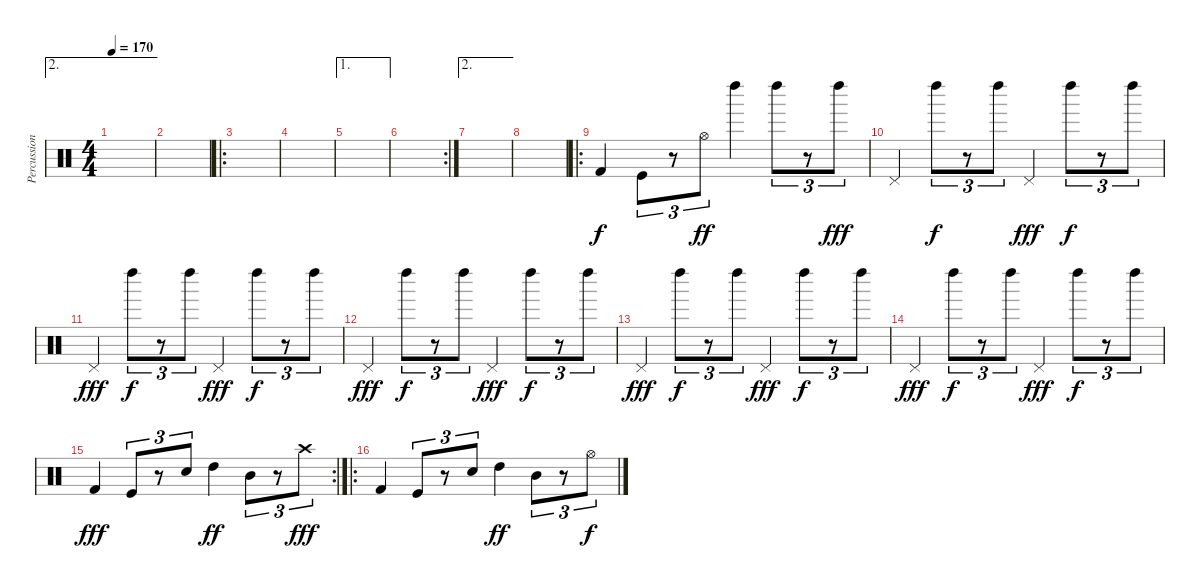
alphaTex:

\track ("Percussions" "Percussion") {instrument percussion}
\staff {score}
\articulation defaults
\ae 2
\ts (4 4)
\tempo 170
\clef neutral
\ks c
|
|
\ro
|
|
\ae 1
|
\rc 2
|
\ae 2
|
|
\ro "Kick (hit) 2".4 "Kick (hit)".8{tu (3 2)}
r.8{tu (3 2)} "Hi-Hat (open)".8{tu (3 2) dy ff} "Left Maraca (hit)".4 "Left Maraca (hit)".8{tu (3 2)} r.8{tu (3 2)} "Left Maraca (hit)".8{tu (3 2) dy fff} |
"Pedal Hi-Hat (hit)".4 "Left Maraca (hit)".8{tu (3 2) dy f} r.8{tu (3 2)} "Left Maraca (hit)".8{tu (3 2)} "Pedal Hi-Hat (hit)".4{dy fff} "Left Maraca (hit)".8{tu (3 2) dy f} r.8{tu (3 2)} "Left Maraca (hit)".8{tu (3 2)} |
"Pedal Hi-Hat (hit)".4{dy fff} "Left Maraca (hit)".8{tu (3 2) dy f} r.8{tu (3 2)} "Left Maraca (hit)".8{tu (3 2)} "Pedal Hi-Hat (hit)".4{dy fff} "Left Maraca (hit)".8{tu (3 2) dy f} r.8{tu (3 2)} "Left Maraca (hit)".8{tu (3 2)} |
"Pedal Hi-Hat (hit)".4{dy fff} "Left Maraca (hit)".8{tu (3 2) dy f} r.8{tu (3 2)} "Left Maraca (hit)".8{tu (3 2)} "Pedal Hi-Hat (hit)".4{dy fff} "Left Maraca (hit)".8{tu (3 2) dy f} r.8{tu (3 2)} "Left Maraca (hit)".8{tu (3 2)} |
"Pedal Hi-Hat (hit)".4{dy fff} "Left Maraca (hit)".8{tu (3 2) dy f} r.8{tu (3 2)} "Left Maraca (hit)".8{tu (3 2)} "Pedal Hi-Hat (hit)".4{dy fff} "Left Maraca (hit)".8{tu (3 2) dy f} r.8{tu (3 2)} "Left Maraca (hit)".8{tu (3 2)} |
"Pedal Hi-Hat (hit)".4{dy fff} "Left Maraca (hit)".8{tu (3 2) dy f} r.8{tu (3 2)} "Left Maraca (hit)".8{tu (3 2)} "Pedal Hi-Hat (hit)".4{dy fff} "Left Maraca (hit)".8{tu (3 2) dy f} r.8{tu (3 2)} "Left Maraca (hit)".8{tu (3 2)} |
\rc 2 "Kick (hit) 2".4{dy fff} "Kick (hit)".8{tu (3 2)}
r.8{tu (3 2)} "Electric Snare (hit)".8{tu (3 2)} "High Tom (hit)".4{dy ff} "Mid Tom (hit)".8{tu (3 2)} r.8{tu (3 2)} "Crash high (hit)".8{tu (3 2) dy fff} |
\ro "Kick (hit) 2".4 "Kick (hit)".8{tu (3 2)}
r.8{tu (3 2)} "Electric Snare (hit)".8{tu (3 2)} "High Tom (hit)".4{dy ff} "Mid Tom (hit)".8{tu (3 2)} r.8{tu (3 2)} "Hi-Hat (open)".8{tu (3 2) dy f}
